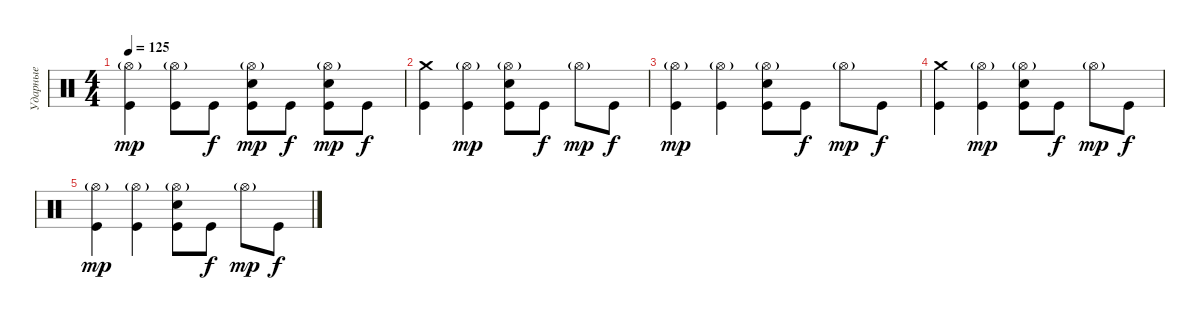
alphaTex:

\track ("Ударные" "Ударные") {instrument percussion}
\staff {score}
\articulation defaults
\ts (4 4)
\tempo 125
\clef neutral
\ks c
("Hi-Hat (open)"{g} "Kick (hit)").4{dy mp} ("Hi-Hat (open)"{g} "Kick (hit)").8 "Kick (hit)".8{dy f} ("Electric Snare (hit)" "Hi-Hat (open)"{g} "Kick (hit)").8{dy mp} "Kick (hit)".8{dy f} ("Electric Snare (hit)" "Hi-Hat (open)"{g} "Kick (hit)").8{dy mp} "Kick (hit)".8{dy f} |
("Crash medium (hit)" "Kick (hit)").4 ("Hi-Hat (open)"{g} "Kick (hit)").4{dy mp} ("Electric Snare (hit)" "Hi-Hat (open)"{g} "Kick (hit)").8 "Kick (hit)".8{dy f} "Hi-Hat (open)"{g}.8{dy mp} "Kick (hit)".8{dy f} |
("Hi-Hat (open)"{g} "Kick (hit)").4{dy mp} ("Hi-Hat (open)"{g} "Kick (hit)").4 ("Electric Snare (hit)" "Hi-Hat (open)"{g} "Kick (hit)").8 "Kick (hit)".8{dy f} "Hi-Hat (open)"{g}.8{dy mp} "Kick (hit)".8{dy f} |
("Crash medium (hit)" "Kick (hit)").4 ("Hi-Hat (open)"{g} "Kick (hit)").4{dy mp} ("Electric Snare (hit)" "Hi-Hat (open)"{g} "Kick (hit)").8 "Kick (hit)".8{dy f} "Hi-Hat (open)"{g}.8{dy mp} "Kick (hit)".8{dy f} |
("Hi-Hat (open)"{g} "Kick (hit)").4{dy mp} ("Hi-Hat (open)"{g} "Kick (hit)").4 ("Electric Snare (hit)" "Hi-Hat (open)"{g} "Kick (hit)").8 "Kick (hit)".8{dy f} "Hi-Hat (open)"{g}.8{dy mp} "Kick (hit)".8{dy f}
